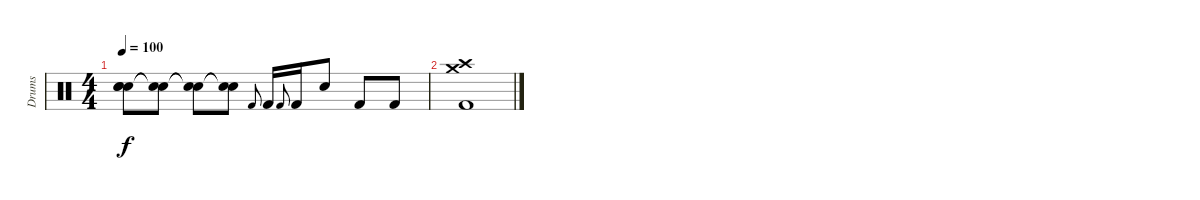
\track ("Drums" "Drums") {instrument percussion}
\staff {score}
\articulation defaults
\ts (4 4)
\tempo 100
\clef neutral
\ks c
("Snare (hit)"{t} "Snare (hit)"{t} "Snare (hit)"{t}).8{dy f} ("Snare (hit)"{t} "Snare (hit)"{t}).8 ("Snare (hit)"{t} "Snare (hit)"{t}).8 ("Snare (hit)"{t} "Snare (hit)"{t}).8 "Kick (hit) 2".8{gr onbeat} "Kick (hit) 2".16 "Kick (hit) 2".8{gr onbeat} "Kick (hit) 2".16 "Electric Snare (hit)".8 "Kick (hit) 2".8 "Kick (hit) 2".8 |
("Kick (hit) 2" "Crash medium (hit)" "Crash high (hit)").1
